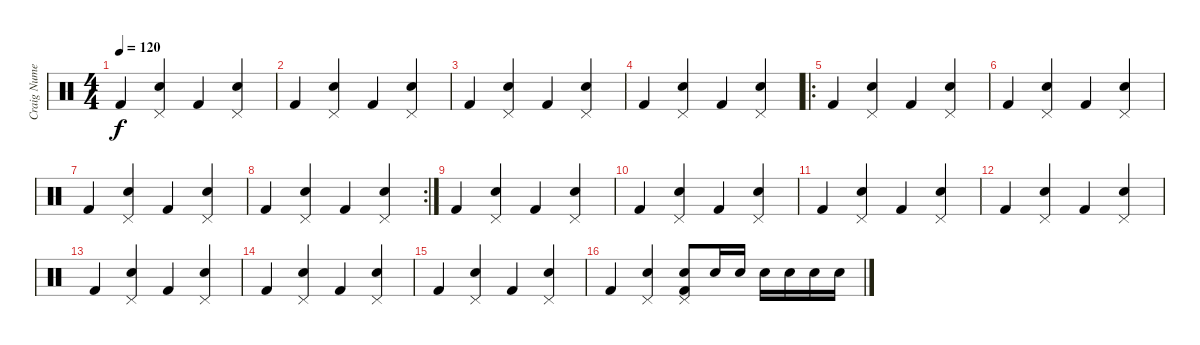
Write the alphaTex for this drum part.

\track ("Craig Numenbacher - Drums" "Craig Nume") {instrument percussion}
\staff {score}
\articulation defaults
\ts (4 4)
\tempo 120
\clef neutral
\ks c "Kick (hit) 2".4{dy f}
("Pedal Hi-Hat (hit)" "Snare (hit) 2").4 "Kick (hit) 2".4 ("Pedal Hi-Hat (hit)" "Snare (hit) 2").4 |
"Kick (hit) 2".4 ("Pedal Hi-Hat (hit)" "Snare (hit) 2").4 "Kick (hit) 2".4 ("Pedal Hi-Hat (hit)" "Snare (hit) 2").4 |
"Kick (hit) 2".4 ("Pedal Hi-Hat (hit)" "Snare (hit) 2").4 "Kick (hit) 2".4 ("Pedal Hi-Hat (hit)" "Snare (hit) 2").4 |
"Kick (hit) 2".4 ("Pedal Hi-Hat (hit)" "Snare (hit) 2").4 "Kick (hit) 2".4 ("Pedal Hi-Hat (hit)" "Snare (hit) 2").4 |
\ro "Kick (hit) 2".4
("Pedal Hi-Hat (hit)" "Snare (hit) 2").4 "Kick (hit) 2".4 ("Pedal Hi-Hat (hit)" "Snare (hit) 2").4 |
"Kick (hit) 2".4 ("Pedal Hi-Hat (hit)" "Snare (hit) 2").4 "Kick (hit) 2".4 ("Pedal Hi-Hat (hit)" "Snare (hit) 2").4 |
"Kick (hit) 2".4 ("Pedal Hi-Hat (hit)" "Snare (hit) 2").4 "Kick (hit) 2".4 ("Pedal Hi-Hat (hit)" "Snare (hit) 2").4 |
\rc 2 "Kick (hit) 2".4
("Pedal Hi-Hat (hit)" "Snare (hit) 2").4 "Kick (hit) 2".4 ("Pedal Hi-Hat (hit)" "Snare (hit) 2").4 |
"Kick (hit) 2".4 ("Pedal Hi-Hat (hit)" "Snare (hit) 2").4 "Kick (hit) 2".4 ("Pedal Hi-Hat (hit)" "Snare (hit) 2").4 |
"Kick (hit) 2".4 ("Pedal Hi-Hat (hit)" "Snare (hit) 2").4 "Kick (hit) 2".4 ("Pedal Hi-Hat (hit)" "Snare (hit) 2").4 |
"Kick (hit) 2".4 ("Pedal Hi-Hat (hit)" "Snare (hit) 2").4 "Kick (hit) 2".4 ("Pedal Hi-Hat (hit)" "Snare (hit) 2").4 |
"Kick (hit) 2".4 ("Pedal Hi-Hat (hit)" "Snare (hit) 2").4 "Kick (hit) 2".4 ("Pedal Hi-Hat (hit)" "Snare (hit) 2").4 |
"Kick (hit) 2".4 ("Pedal Hi-Hat (hit)" "Snare (hit) 2").4 "Kick (hit) 2".4 ("Pedal Hi-Hat (hit)" "Snare (hit) 2").4 |
"Kick (hit) 2".4 ("Pedal Hi-Hat (hit)" "Snare (hit) 2").4 "Kick (hit) 2".4 ("Pedal Hi-Hat (hit)" "Snare (hit) 2").4 |
"Kick (hit) 2".4 ("Pedal Hi-Hat (hit)" "Snare (hit) 2").4 "Kick (hit) 2".4 ("Pedal Hi-Hat (hit)" "Snare (hit) 2").4 |
"Kick (hit) 2".4 ("Pedal Hi-Hat (hit)" "Snare (hit) 2").4 ("Pedal Hi-Hat (hit)" "Snare (hit) 2" "Kick (hit) 2").8 "Snare (hit) 2".16 "Snare (hit) 2".16 "Snare (hit) 2".16 "Snare (hit) 2".16 "Snare (hit) 2".16 "Snare (hit) 2".16
